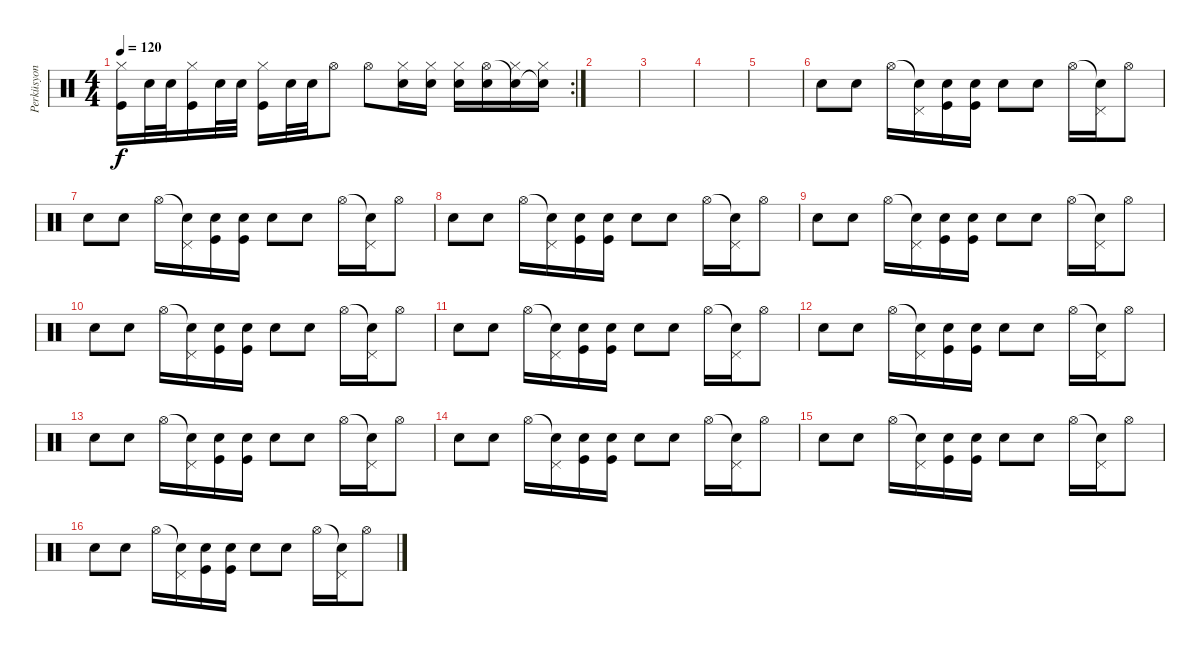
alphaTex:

\track ("Perküsyon" "Perküsyon") {instrument percussion}
\staff {score}
\articulation defaults
\rc 2
\ts (4 4)
\tempo 120
\clef neutral
\ks c
("Kick (hit)" "Hi-Hat (closed)").16{dy f} "Snare (hit) 2".32 "Snare (hit) 2".32 ("Kick (hit)" "Hi-Hat (closed)").16 "Snare (hit) 2".32 "Snare (hit) 2".32 ("Kick (hit)" "Hi-Hat (closed)").16 "Snare (hit) 2".32 "Snare (hit) 2".32 "Hi-Hat (open)".8 "Hi-Hat (open)".8 ("Electric Snare (hit)" "Hi-Hat (closed)").16 ("Snare (hit) 2" "Hi-Hat (closed)").16 ("Electric Snare (hit)" "Hi-Hat (closed)").16 ("Hi-Hat (open)" "Snare (hit) 2").16 ("Snare (hit)"{t} "Hi-Hat (closed)").16 ("Snare (hit)"{t} "Hi-Hat (closed)").16 |
|
|
|
|
"Snare (hit) 2".8 "Snare (hit) 2".8 "Hi-Hat (open)".16 ("Snare (hit)"{t} "Pedal Hi-Hat (hit)").16 ("Snare (hit) 2" "Kick (hit)").16 ("Snare (hit) 2" "Kick (hit)").16 "Snare (hit) 2".8 "Snare (hit) 2".8 "Hi-Hat (open)".16 ("Snare (hit)"{t} "Pedal Hi-Hat (hit)").16 "Hi-Hat (open)".8 |
"Snare (hit) 2".8 "Snare (hit) 2".8 "Hi-Hat (open)".16 ("Snare (hit)"{t} "Pedal Hi-Hat (hit)").16 ("Snare (hit) 2" "Kick (hit)").16 ("Snare (hit) 2" "Kick (hit)").16 "Snare (hit) 2".8 "Snare (hit) 2".8 "Hi-Hat (open)".16 ("Snare (hit)"{t} "Pedal Hi-Hat (hit)").16 "Hi-Hat (open)".8 |
"Snare (hit) 2".8 "Snare (hit) 2".8 "Hi-Hat (open)".16 ("Snare (hit)"{t} "Pedal Hi-Hat (hit)").16 ("Snare (hit) 2" "Kick (hit)").16 ("Snare (hit) 2" "Kick (hit)").16 "Snare (hit) 2".8 "Snare (hit) 2".8 "Hi-Hat (open)".16 ("Snare (hit)"{t} "Pedal Hi-Hat (hit)").16 "Hi-Hat (open)".8 |
"Snare (hit) 2".8 "Snare (hit) 2".8 "Hi-Hat (open)".16 ("Snare (hit)"{t} "Pedal Hi-Hat (hit)").16 ("Snare (hit) 2" "Kick (hit)").16 ("Snare (hit) 2" "Kick (hit)").16 "Snare (hit) 2".8 "Snare (hit) 2".8 "Hi-Hat (open)".16 ("Snare (hit)"{t} "Pedal Hi-Hat (hit)").16 "Hi-Hat (open)".8 |
"Snare (hit) 2".8 "Snare (hit) 2".8 "Hi-Hat (open)".16 ("Snare (hit)"{t} "Pedal Hi-Hat (hit)").16 ("Snare (hit) 2" "Kick (hit)").16 ("Snare (hit) 2" "Kick (hit)").16 "Snare (hit) 2".8 "Snare (hit) 2".8 "Hi-Hat (open)".16 ("Snare (hit)"{t} "Pedal Hi-Hat (hit)").16 "Hi-Hat (open)".8 |
"Snare (hit) 2".8 "Snare (hit) 2".8 "Hi-Hat (open)".16 ("Snare (hit)"{t} "Pedal Hi-Hat (hit)").16 ("Snare (hit) 2" "Kick (hit)").16 ("Snare (hit) 2" "Kick (hit)").16 "Snare (hit) 2".8 "Snare (hit) 2".8 "Hi-Hat (open)".16 ("Snare (hit)"{t} "Pedal Hi-Hat (hit)").16 "Hi-Hat (open)".8 |
"Snare (hit) 2".8 "Snare (hit) 2".8 "Hi-Hat (open)".16 ("Snare (hit)"{t} "Pedal Hi-Hat (hit)").16 ("Snare (hit) 2" "Kick (hit)").16 ("Snare (hit) 2" "Kick (hit)").16 "Snare (hit) 2".8 "Snare (hit) 2".8 "Hi-Hat (open)".16 ("Snare (hit)"{t} "Pedal Hi-Hat (hit)").16 "Hi-Hat (open)".8 |
"Snare (hit) 2".8 "Snare (hit) 2".8 "Hi-Hat (open)".16 ("Snare (hit)"{t} "Pedal Hi-Hat (hit)").16 ("Snare (hit) 2" "Kick (hit)").16 ("Snare (hit) 2" "Kick (hit)").16 "Snare (hit) 2".8 "Snare (hit) 2".8 "Hi-Hat (open)".16 ("Snare (hit)"{t} "Pedal Hi-Hat (hit)").16 "Hi-Hat (open)".8 |
"Snare (hit) 2".8 "Snare (hit) 2".8 "Hi-Hat (open)".16 ("Snare (hit)"{t} "Pedal Hi-Hat (hit)").16 ("Snare (hit) 2" "Kick (hit)").16 ("Snare (hit) 2" "Kick (hit)").16 "Snare (hit) 2".8 "Snare (hit) 2".8 "Hi-Hat (open)".16 ("Snare (hit)"{t} "Pedal Hi-Hat (hit)").16 "Hi-Hat (open)".8 |
"Snare (hit) 2".8 "Snare (hit) 2".8 "Hi-Hat (open)".16 ("Snare (hit)"{t} "Pedal Hi-Hat (hit)").16 ("Snare (hit) 2" "Kick (hit)").16 ("Snare (hit) 2" "Kick (hit)").16 "Snare (hit) 2".8 "Snare (hit) 2".8 "Hi-Hat (open)".16 ("Snare (hit)"{t} "Pedal Hi-Hat (hit)").16 "Hi-Hat (open)".8 |
"Snare (hit) 2".8 "Snare (hit) 2".8 "Hi-Hat (open)".16 ("Snare (hit)"{t} "Pedal Hi-Hat (hit)").16 ("Snare (hit) 2" "Kick (hit)").16 ("Snare (hit) 2" "Kick (hit)").16 "Snare (hit) 2".8 "Snare (hit) 2".8 "Hi-Hat (open)".16 ("Snare (hit)"{t} "Pedal Hi-Hat (hit)").16 "Hi-Hat (open)".8
